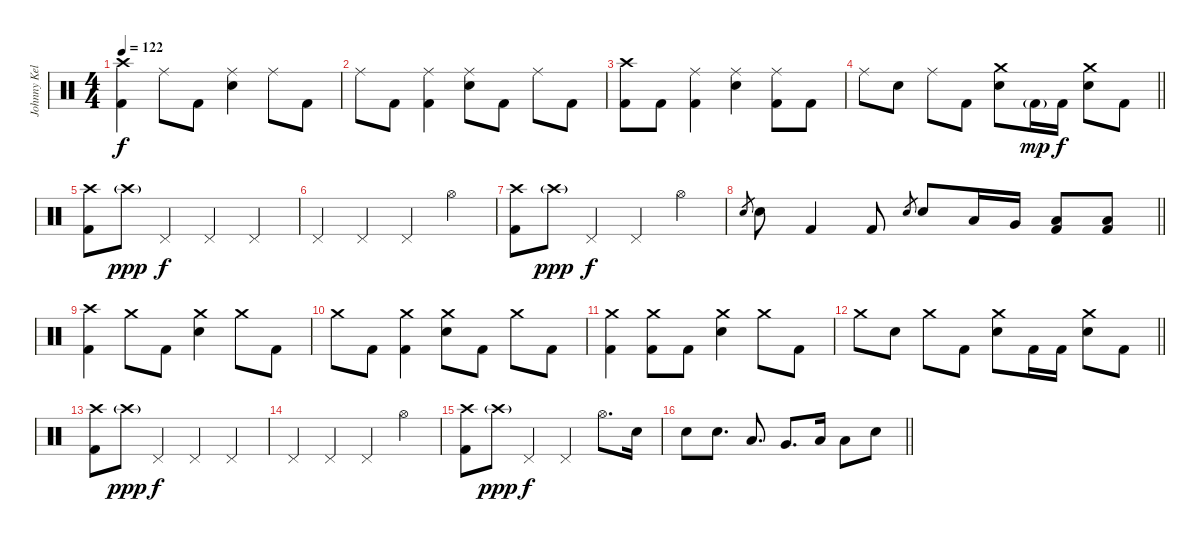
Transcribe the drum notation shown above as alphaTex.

\track ("Johnny Kelly" "Johnny Kel") {instrument percussion}
\staff {score}
\articulation defaults
\ts (4 4)
\tempo 122
\clef neutral
\ks c
("Crash high (hit)" "Kick (hit) 2").4{dy f} "Ride (middle)".8 "Kick (hit) 2".8 ("Ride (middle)" "Electric Snare (hit)").4 "Ride (middle)".8 "Kick (hit) 2".8 |
"Ride (middle)".8 "Kick (hit) 2".8 ("Ride (middle)" "Kick (hit) 2").4 ("Ride (middle)" "Electric Snare (hit)").8 "Kick (hit) 2".8 "Ride (middle)".8 "Kick (hit) 2".8 |
("Crash high (hit)" "Kick (hit) 2").8 "Kick (hit) 2".8 ("Ride (middle)" "Kick (hit) 2").4 ("Ride (middle)" "Electric Snare (hit)").4 ("Ride (middle)" "Kick (hit) 2").8 "Kick (hit) 2".8 |
\barLineRight lightlight "Ride (middle)".8 "Electric Snare (hit)".8 "Ride (middle)".8 "Kick (hit) 2".8
("Crash medium (hit)" "Electric Snare (hit)").8 "Kick (hit) 2"{g}.16{dy mp} "Kick (hit) 2".16{dy f} ("Crash medium (hit)" "Electric Snare (hit)").8 "Kick (hit) 2".8 |
\section ("" "")
("Crash high (hit)" "Kick (hit) 2").8 "Crash high (hit)"{g}.8{dy ppp} "Pedal Hi-Hat (hit)".4{dy f} "Pedal Hi-Hat (hit)".4 "Pedal Hi-Hat (hit)".4 |
"Pedal Hi-Hat (hit)".4 "Pedal Hi-Hat (hit)".4 "Pedal Hi-Hat (hit)".4 "Hi-Hat (open)".4 |
("Crash high (hit)" "Kick (hit) 2").8 "Crash high (hit)"{g}.8{dy ppp} "Pedal Hi-Hat (hit)".4{dy f} "Pedal Hi-Hat (hit)".4 "Hi-Hat (open)".4 |
\barLineRight lightlight "Electric Snare (hit)".8{gr} "Electric Snare (hit)".8 "Kick (hit) 2".4 "Kick (hit) 2".8 "Electric Snare (hit)".8{gr} "Electric Snare (hit)".8 "Low Tom (hit)".16 "Very Low Tom (hit)".16
("Low Floor Tom (hit)" "Kick (hit) 2").8 ("Low Floor Tom (hit)" "Kick (hit) 2").8 |
\section ("" "")
("Crash high (hit)" "Kick (hit) 2").4 "Crash medium (hit)".8 "Kick (hit) 2".8 ("Crash medium (hit)" "Electric Snare (hit)").4 "Crash medium (hit)".8 "Kick (hit) 2".8 |
"Crash medium (hit)".8 "Kick (hit) 2".8 ("Crash medium (hit)" "Kick (hit) 2").4 ("Crash medium (hit)" "Electric Snare (hit)").8 "Kick (hit) 2".8 "Crash medium (hit)".8 "Kick (hit) 2".8 |
("Crash medium (hit)" "Kick (hit) 2").4 ("Crash medium (hit)" "Kick (hit) 2").8 "Kick (hit) 2".8 ("Crash medium (hit)" "Electric Snare (hit)").4 "Crash medium (hit)".8 "Kick (hit) 2".8 |
\barLineRight lightlight "Crash medium (hit)".8 "Electric Snare (hit)".8 "Crash medium (hit)".8 "Kick (hit) 2".8
("Crash medium (hit)" "Electric Snare (hit)").8 "Kick (hit) 2".16 "Kick (hit) 2".16 ("Crash medium (hit)" "Electric Snare (hit)").8 "Kick (hit) 2".8 |
\section ("" "")
("Crash high (hit)" "Kick (hit) 2").8 "Crash high (hit)"{g}.8{dy ppp} "Pedal Hi-Hat (hit)".4{dy f} "Pedal Hi-Hat (hit)".4 "Pedal Hi-Hat (hit)".4 |
"Pedal Hi-Hat (hit)".4 "Pedal Hi-Hat (hit)".4 "Pedal Hi-Hat (hit)".4 "Hi-Hat (open)".4 |
("Crash high (hit)" "Kick (hit) 2").8 "Crash high (hit)"{g}.8{dy ppp} "Pedal Hi-Hat (hit)".4{dy f} "Pedal Hi-Hat (hit)".4 "Hi-Hat (open)".8{d} "Electric Snare (hit)".16 |
\barLineRight lightlight "Electric Snare (hit)".8 "Electric Snare (hit)".8{d} "Low Tom (hit)".8{d} "Very Low Tom (hit)".8{d} "Low Floor Tom (hit)".16 "Low Floor Tom (hit)".8 "Electric Snare (hit)".8
